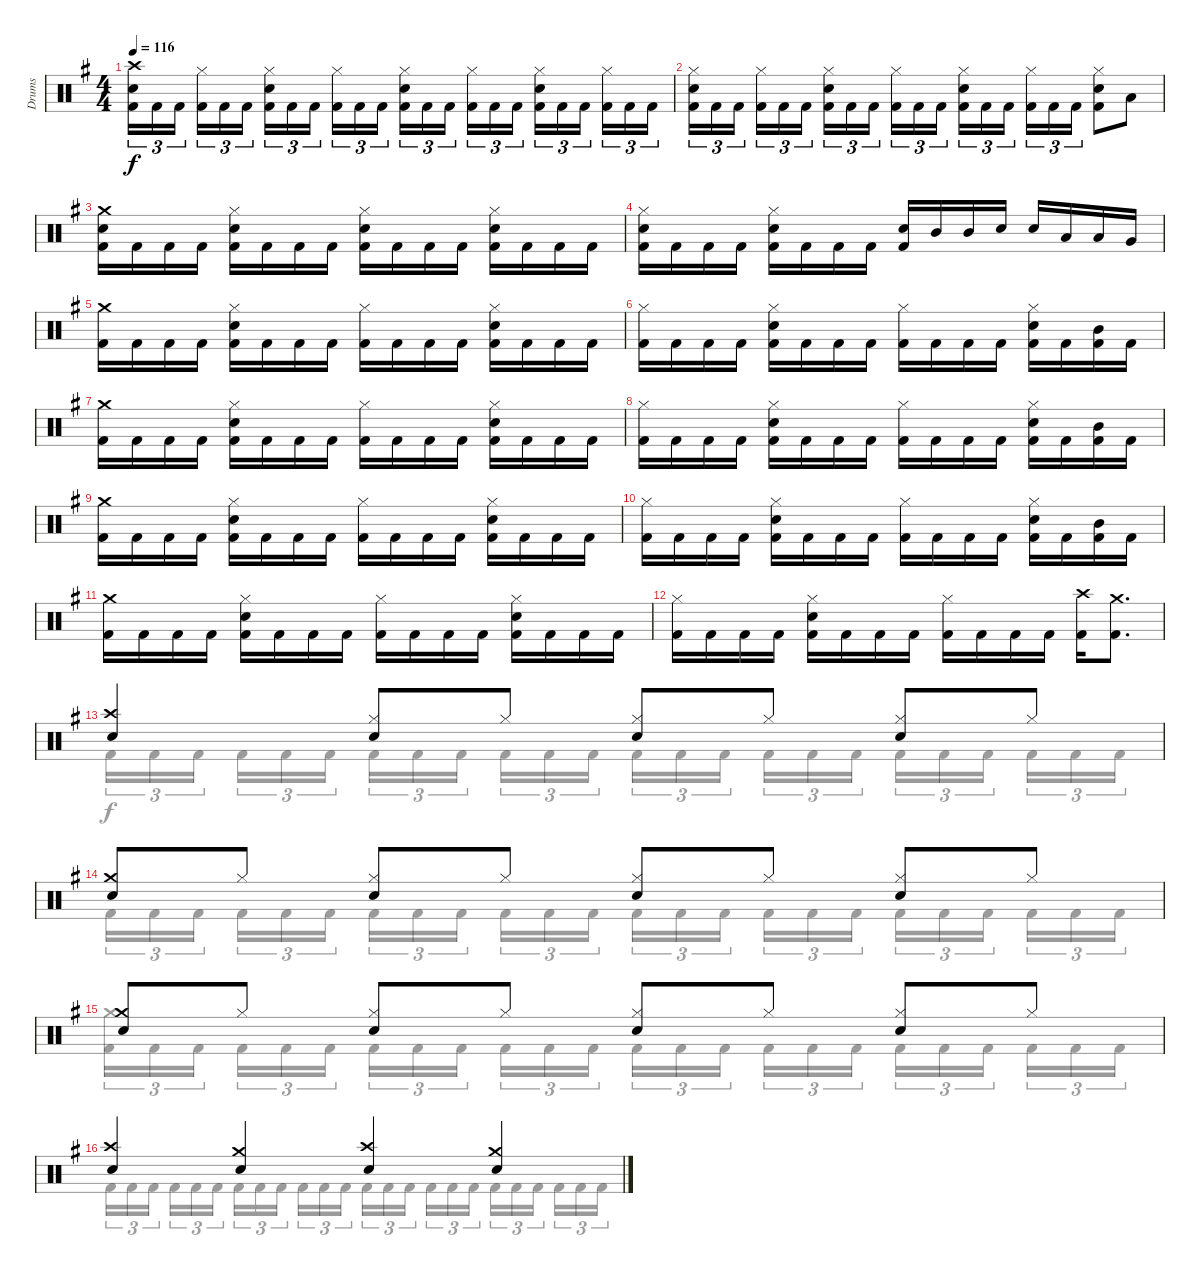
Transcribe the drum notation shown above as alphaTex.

\track ("Drums" "Drums") {instrument percussion}
\staff {score}
\articulation defaults
\voice
\ts (4 4)
\tempo 116
\clef neutral
\ks eminor
("Crash high (hit)" "Snare (hit) 2" "Kick (hit) 2").16{tu (3 2) dy f} "Kick (hit) 2".16{tu (3 2)} "Kick (hit) 2".16{tu (3 2) beam splitsecondary} ("Hi-Hat (closed)" "Kick (hit) 2").16{tu (3 2)} "Kick (hit) 2".16{tu (3 2)} "Kick (hit) 2".16{tu (3 2)} ("Hi-Hat (closed)" "Snare (hit) 2" "Kick (hit) 2").16{tu (3 2)} "Kick (hit) 2".16{tu (3 2)} "Kick (hit) 2".16{tu (3 2) beam splitsecondary} ("Hi-Hat (closed)" "Kick (hit) 2").16{tu (3 2)} "Kick (hit) 2".16{tu (3 2)} "Kick (hit) 2".16{tu (3 2)} ("Hi-Hat (closed)" "Snare (hit) 2" "Kick (hit) 2").16{tu (3 2)} "Kick (hit) 2".16{tu (3 2)} "Kick (hit) 2".16{tu (3 2) beam splitsecondary} ("Hi-Hat (closed)" "Kick (hit) 2").16{tu (3 2)} "Kick (hit) 2".16{tu (3 2)} "Kick (hit) 2".16{tu (3 2)} ("Hi-Hat (closed)" "Snare (hit) 2" "Kick (hit) 2").16{tu (3 2)} "Kick (hit) 2".16{tu (3 2)} "Kick (hit) 2".16{tu (3 2) beam splitsecondary} ("Hi-Hat (closed)" "Kick (hit) 2").16{tu (3 2)} "Kick (hit) 2".16{tu (3 2)} "Kick (hit) 2".16{tu (3 2)} |
("Hi-Hat (closed)" "Snare (hit) 2" "Kick (hit) 2").16{tu (3 2)} "Kick (hit) 2".16{tu (3 2)} "Kick (hit) 2".16{tu (3 2) beam splitsecondary} ("Hi-Hat (closed)" "Kick (hit) 2").16{tu (3 2)} "Kick (hit) 2".16{tu (3 2)} "Kick (hit) 2".16{tu (3 2)} ("Hi-Hat (closed)" "Snare (hit) 2" "Kick (hit) 2").16{tu (3 2)} "Kick (hit) 2".16{tu (3 2)} "Kick (hit) 2".16{tu (3 2) beam splitsecondary} ("Hi-Hat (closed)" "Kick (hit) 2").16{tu (3 2)} "Kick (hit) 2".16{tu (3 2)} "Kick (hit) 2".16{tu (3 2)} ("Hi-Hat (closed)" "Snare (hit) 2" "Kick (hit) 2").16{tu (3 2)} "Kick (hit) 2".16{tu (3 2)} "Kick (hit) 2".16{tu (3 2) beam splitsecondary} ("Hi-Hat (closed)" "Kick (hit) 2").16{tu (3 2)} "Kick (hit) 2".16{tu (3 2)} "Kick (hit) 2".16{tu (3 2)} ("Hi-Hat (closed)" "Snare (hit) 2" "Kick (hit) 2").8 "Low Tom (hit)".8 |
("Crash medium (hit)" "Snare (hit) 2" "Kick (hit) 2").16 "Kick (hit) 2".16 "Kick (hit) 2".16 "Kick (hit) 2".16 ("Hi-Hat (closed)" "Snare (hit) 2" "Kick (hit) 2").16 "Kick (hit) 2".16 "Kick (hit) 2".16 "Kick (hit) 2".16 ("Hi-Hat (closed)" "Snare (hit) 2" "Kick (hit) 2").16 "Kick (hit) 2".16 "Kick (hit) 2".16 "Kick (hit) 2".16 ("Hi-Hat (closed)" "Snare (hit) 2" "Kick (hit) 2").16 "Kick (hit) 2".16 "Kick (hit) 2".16 "Kick (hit) 2".16 |
("Hi-Hat (closed)" "Snare (hit) 2" "Kick (hit) 2").16 "Kick (hit) 2".16 "Kick (hit) 2".16 "Kick (hit) 2".16 ("Hi-Hat (closed)" "Snare (hit) 2" "Kick (hit) 2").16 "Kick (hit) 2".16 "Kick (hit) 2".16 "Kick (hit) 2".16 ("Snare (hit) 2" "Kick (hit) 2").16 "Mid Tom (hit)".16 "Mid Tom (hit)".16 "Snare (hit) 2".16 "Snare (hit) 2".16 "Low Tom (hit)".16 "Low Tom (hit)".16 "Very Low Tom (hit)".16 |
("Crash medium (hit)" "Kick (hit) 2").16 "Kick (hit) 2".16 "Kick (hit) 2".16 "Kick (hit) 2".16 ("Hi-Hat (closed)" "Snare (hit) 2" "Kick (hit) 2").16 "Kick (hit) 2".16 "Kick (hit) 2".16 "Kick (hit) 2".16 ("Hi-Hat (closed)" "Kick (hit) 2").16 "Kick (hit) 2".16 "Kick (hit) 2".16 "Kick (hit) 2".16 ("Hi-Hat (closed)" "Snare (hit) 2" "Kick (hit) 2").16 "Kick (hit) 2".16 "Kick (hit) 2".16 "Kick (hit) 2".16 |
("Hi-Hat (closed)" "Kick (hit) 2").16 "Kick (hit) 2".16 "Kick (hit) 2".16 "Kick (hit) 2".16 ("Hi-Hat (closed)" "Snare (hit) 2" "Kick (hit) 2").16 "Kick (hit) 2".16 "Kick (hit) 2".16 "Kick (hit) 2".16 ("Hi-Hat (closed)" "Kick (hit) 2").16 "Kick (hit) 2".16 "Kick (hit) 2".16 "Kick (hit) 2".16 ("Hi-Hat (closed)" "Snare (hit) 2" "Kick (hit) 2").16 "Kick (hit) 2".16 ("Mid Tom (hit)" "Kick (hit) 2").16 "Kick (hit) 2".16 |
("Crash medium (hit)" "Kick (hit) 2").16 "Kick (hit) 2".16 "Kick (hit) 2".16 "Kick (hit) 2".16 ("Hi-Hat (closed)" "Snare (hit) 2" "Kick (hit) 2").16 "Kick (hit) 2".16 "Kick (hit) 2".16 "Kick (hit) 2".16 ("Hi-Hat (closed)" "Kick (hit) 2").16 "Kick (hit) 2".16 "Kick (hit) 2".16 "Kick (hit) 2".16 ("Hi-Hat (closed)" "Snare (hit) 2" "Kick (hit) 2").16 "Kick (hit) 2".16 "Kick (hit) 2".16 "Kick (hit) 2".16 |
("Hi-Hat (closed)" "Kick (hit) 2").16 "Kick (hit) 2".16 "Kick (hit) 2".16 "Kick (hit) 2".16 ("Hi-Hat (closed)" "Snare (hit) 2" "Kick (hit) 2").16 "Kick (hit) 2".16 "Kick (hit) 2".16 "Kick (hit) 2".16 ("Hi-Hat (closed)" "Kick (hit) 2").16 "Kick (hit) 2".16 "Kick (hit) 2".16 "Kick (hit) 2".16 ("Hi-Hat (closed)" "Snare (hit) 2" "Kick (hit) 2").16 "Kick (hit) 2".16 ("Mid Tom (hit)" "Kick (hit) 2").16 "Kick (hit) 2".16 |
("Crash medium (hit)" "Kick (hit) 2").16 "Kick (hit) 2".16 "Kick (hit) 2".16 "Kick (hit) 2".16 ("Hi-Hat (closed)" "Snare (hit) 2" "Kick (hit) 2").16 "Kick (hit) 2".16 "Kick (hit) 2".16 "Kick (hit) 2".16 ("Hi-Hat (closed)" "Kick (hit) 2").16 "Kick (hit) 2".16 "Kick (hit) 2".16 "Kick (hit) 2".16 ("Hi-Hat (closed)" "Snare (hit) 2" "Kick (hit) 2").16 "Kick (hit) 2".16 "Kick (hit) 2".16 "Kick (hit) 2".16 |
("Hi-Hat (closed)" "Kick (hit) 2").16 "Kick (hit) 2".16 "Kick (hit) 2".16 "Kick (hit) 2".16 ("Hi-Hat (closed)" "Snare (hit) 2" "Kick (hit) 2").16 "Kick (hit) 2".16 "Kick (hit) 2".16 "Kick (hit) 2".16 ("Hi-Hat (closed)" "Kick (hit) 2").16 "Kick (hit) 2".16 "Kick (hit) 2".16 "Kick (hit) 2".16 ("Hi-Hat (closed)" "Snare (hit) 2" "Kick (hit) 2").16 "Kick (hit) 2".16 ("Mid Tom (hit)" "Kick (hit) 2").16 "Kick (hit) 2".16 |
("Crash medium (hit)" "Kick (hit) 2").16 "Kick (hit) 2".16 "Kick (hit) 2".16 "Kick (hit) 2".16 ("Hi-Hat (closed)" "Snare (hit) 2" "Kick (hit) 2").16 "Kick (hit) 2".16 "Kick (hit) 2".16 "Kick (hit) 2".16 ("Hi-Hat (closed)" "Kick (hit) 2").16 "Kick (hit) 2".16 "Kick (hit) 2".16 "Kick (hit) 2".16 ("Hi-Hat (closed)" "Snare (hit) 2" "Kick (hit) 2").16 "Kick (hit) 2".16 "Kick (hit) 2".16 "Kick (hit) 2".16 |
("Hi-Hat (closed)" "Kick (hit) 2").16 "Kick (hit) 2".16 "Kick (hit) 2".16 "Kick (hit) 2".16 ("Hi-Hat (closed)" "Snare (hit) 2" "Kick (hit) 2").16 "Kick (hit) 2".16 "Kick (hit) 2".16 "Kick (hit) 2".16 ("Hi-Hat (closed)" "Kick (hit) 2").16 "Kick (hit) 2".16 "Kick (hit) 2".16 "Kick (hit) 2".16 ("Crash high (hit)" "Kick (hit) 2").16 ("Crash medium (hit)" "Kick (hit) 2").8{d} |
("Crash high (hit)" "Snare (hit) 2").4 ("Hi-Hat (closed)" "Snare (hit) 2").8 "Hi-Hat (closed)".8 ("Hi-Hat (closed)" "Snare (hit) 2").8 "Hi-Hat (closed)".8 ("Hi-Hat (closed)" "Snare (hit) 2").8 "Hi-Hat (closed)".8 |
("Crash medium (hit)" "Snare (hit) 2").8 "Hi-Hat (closed)".8 ("Hi-Hat (closed)" "Snare (hit) 2").8 "Hi-Hat (closed)".8 ("Hi-Hat (closed)" "Snare (hit) 2").8 "Hi-Hat (closed)".8 ("Hi-Hat (closed)" "Snare (hit) 2").8 "Hi-Hat (closed)".8 |
("Crash medium (hit)" "Snare (hit) 2").8 "Hi-Hat (closed)".8 ("Hi-Hat (closed)" "Snare (hit) 2").8 "Hi-Hat (closed)".8 ("Hi-Hat (closed)" "Snare (hit) 2").8 "Hi-Hat (closed)".8 ("Hi-Hat (closed)" "Snare (hit) 2").8 "Hi-Hat (closed)".8 |
("Crash high (hit)" "Snare (hit) 2").4 ("Crash medium (hit)" "Snare (hit) 2").4 ("Crash high (hit)" "Snare (hit) 2").4 ("Crash medium (hit)" "Snare (hit) 2").4
\voice
\clef neutral
\ottava regular
\simile none
\ks eminor
|
|
|
|
|
|
|
|
|
|
|
|
"Kick (hit) 2".16{tu (3 2)} "Kick (hit) 2".16{tu (3 2)} "Kick (hit) 2".16{tu (3 2) beam splitsecondary} "Kick (hit) 2".16{tu (3 2)} "Kick (hit) 2".16{tu (3 2)} "Kick (hit) 2".16{tu (3 2)} "Kick (hit) 2".16{tu (3 2)} "Kick (hit) 2".16{tu (3 2)} "Kick (hit) 2".16{tu (3 2) beam splitsecondary} "Kick (hit) 2".16{tu (3 2)} "Kick (hit) 2".16{tu (3 2)} "Kick (hit) 2".16{tu (3 2)} "Kick (hit) 2".16{tu (3 2)} "Kick (hit) 2".16{tu (3 2)} "Kick (hit) 2".16{tu (3 2) beam splitsecondary} "Kick (hit) 2".16{tu (3 2)} "Kick (hit) 2".16{tu (3 2)} "Kick (hit) 2".16{tu (3 2)} "Kick (hit) 2".16{tu (3 2)} "Kick (hit) 2".16{tu (3 2)} "Kick (hit) 2".16{tu (3 2) beam splitsecondary} "Kick (hit) 2".16{tu (3 2)} "Kick (hit) 2".16{tu (3 2)} "Kick (hit) 2".16{tu (3 2)} |
"Kick (hit) 2".16{tu (3 2)} "Kick (hit) 2".16{tu (3 2)} "Kick (hit) 2".16{tu (3 2) beam splitsecondary} "Kick (hit) 2".16{tu (3 2)} "Kick (hit) 2".16{tu (3 2)} "Kick (hit) 2".16{tu (3 2)} "Kick (hit) 2".16{tu (3 2)} "Kick (hit) 2".16{tu (3 2)} "Kick (hit) 2".16{tu (3 2) beam splitsecondary} "Kick (hit) 2".16{tu (3 2)} "Kick (hit) 2".16{tu (3 2)} "Kick (hit) 2".16{tu (3 2)} "Kick (hit) 2".16{tu (3 2)} "Kick (hit) 2".16{tu (3 2)} "Kick (hit) 2".16{tu (3 2) beam splitsecondary} "Kick (hit) 2".16{tu (3 2)} "Kick (hit) 2".16{tu (3 2)} "Kick (hit) 2".16{tu (3 2)} "Kick (hit) 2".16{tu (3 2)} "Kick (hit) 2".16{tu (3 2)} "Kick (hit) 2".16{tu (3 2) beam splitsecondary} "Kick (hit) 2".16{tu (3 2)} "Kick (hit) 2".16{tu (3 2)} "Kick (hit) 2".16{tu (3 2)} |
("Crash medium (hit)" "Kick (hit) 2").16{tu (3 2)} "Kick (hit) 2".16{tu (3 2)} "Kick (hit) 2".16{tu (3 2) beam splitsecondary} "Kick (hit) 2".16{tu (3 2)} "Kick (hit) 2".16{tu (3 2)} "Kick (hit) 2".16{tu (3 2)} "Kick (hit) 2".16{tu (3 2)} "Kick (hit) 2".16{tu (3 2)} "Kick (hit) 2".16{tu (3 2) beam splitsecondary} "Kick (hit) 2".16{tu (3 2)} "Kick (hit) 2".16{tu (3 2)} "Kick (hit) 2".16{tu (3 2)} "Kick (hit) 2".16{tu (3 2)} "Kick (hit) 2".16{tu (3 2)} "Kick (hit) 2".16{tu (3 2) beam splitsecondary} "Kick (hit) 2".16{tu (3 2)} "Kick (hit) 2".16{tu (3 2)} "Kick (hit) 2".16{tu (3 2)} "Kick (hit) 2".16{tu (3 2)} "Kick (hit) 2".16{tu (3 2)} "Kick (hit) 2".16{tu (3 2) beam splitsecondary} "Kick (hit) 2".16{tu (3 2)} "Kick (hit) 2".16{tu (3 2)} "Kick (hit) 2".16{tu (3 2)} |
"Kick (hit) 2".16{tu (3 2)} "Kick (hit) 2".16{tu (3 2)} "Kick (hit) 2".16{tu (3 2) beam splitsecondary} "Kick (hit) 2".16{tu (3 2)} "Kick (hit) 2".16{tu (3 2)} "Kick (hit) 2".16{tu (3 2)} "Kick (hit) 2".16{tu (3 2)} "Kick (hit) 2".16{tu (3 2)} "Kick (hit) 2".16{tu (3 2) beam splitsecondary} "Kick (hit) 2".16{tu (3 2)} "Kick (hit) 2".16{tu (3 2)} "Kick (hit) 2".16{tu (3 2)} "Kick (hit) 2".16{tu (3 2)} "Kick (hit) 2".16{tu (3 2)} "Kick (hit) 2".16{tu (3 2) beam splitsecondary} "Kick (hit) 2".16{tu (3 2)} "Kick (hit) 2".16{tu (3 2)} "Kick (hit) 2".16{tu (3 2)} "Kick (hit) 2".16{tu (3 2)} "Kick (hit) 2".16{tu (3 2)} "Kick (hit) 2".16{tu (3 2) beam splitsecondary} "Kick (hit) 2".16{tu (3 2)} "Kick (hit) 2".16{tu (3 2)} "Kick (hit) 2".16{tu (3 2)}
